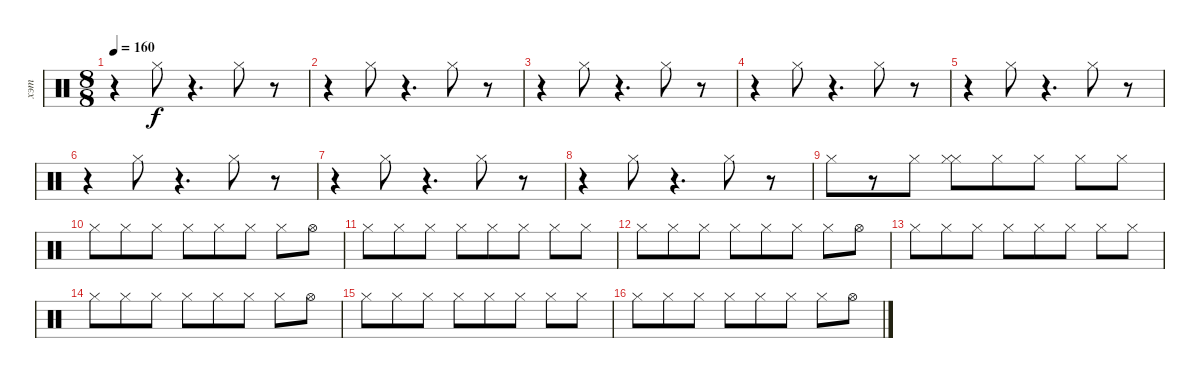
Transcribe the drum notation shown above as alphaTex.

\track ("хэт" "хэт") {instrument percussion}
\staff {score}
\articulation defaults
\ts (8 8)
\tempo 160
\clef neutral
\ks c
r.4{dy f} "Hi-Hat (closed)".8 r.4{d} "Hi-Hat (closed)".8 r.8 |
r.4 "Hi-Hat (closed)".8 r.4{d} "Hi-Hat (closed)".8 r.8 |
r.4 "Hi-Hat (closed)".8 r.4{d} "Hi-Hat (closed)".8 r.8 |
r.4 "Hi-Hat (closed)".8 r.4{d} "Hi-Hat (closed)".8 r.8 |
r.4 "Hi-Hat (closed)".8 r.4{d} "Hi-Hat (closed)".8 r.8 |
r.4 "Hi-Hat (closed)".8 r.4{d} "Hi-Hat (closed)".8 r.8 |
r.4 "Hi-Hat (closed)".8 r.4{d} "Hi-Hat (closed)".8 r.8 |
r.4 "Hi-Hat (closed)".8 r.4{d} "Hi-Hat (closed)".8 r.8 |
"Hi-Hat (closed)".8 r.8 "Hi-Hat (closed)".8 ("Hi-Hat (closed)" "Hi-Hat (closed)").8 "Hi-Hat (closed)".8 "Hi-Hat (closed)".8 "Hi-Hat (closed)".8 "Hi-Hat (closed)".8 |
"Hi-Hat (closed)".8 "Hi-Hat (closed)".8 "Hi-Hat (closed)".8 "Hi-Hat (closed)".8 "Hi-Hat (closed)".8 "Hi-Hat (closed)".8 "Hi-Hat (closed)".8 "Hi-Hat (open)".8 |
"Hi-Hat (closed)".8 "Hi-Hat (closed)".8 "Hi-Hat (closed)".8 "Hi-Hat (closed)".8 "Hi-Hat (closed)".8 "Hi-Hat (closed)".8 "Hi-Hat (closed)".8 "Hi-Hat (closed)".8 |
"Hi-Hat (closed)".8 "Hi-Hat (closed)".8 "Hi-Hat (closed)".8 "Hi-Hat (closed)".8 "Hi-Hat (closed)".8 "Hi-Hat (closed)".8 "Hi-Hat (closed)".8 "Hi-Hat (open)".8 |
"Hi-Hat (closed)".8 "Hi-Hat (closed)".8 "Hi-Hat (closed)".8 "Hi-Hat (closed)".8 "Hi-Hat (closed)".8 "Hi-Hat (closed)".8 "Hi-Hat (closed)".8 "Hi-Hat (closed)".8 |
"Hi-Hat (closed)".8 "Hi-Hat (closed)".8 "Hi-Hat (closed)".8 "Hi-Hat (closed)".8 "Hi-Hat (closed)".8 "Hi-Hat (closed)".8 "Hi-Hat (closed)".8 "Hi-Hat (open)".8 |
"Hi-Hat (closed)".8 "Hi-Hat (closed)".8 "Hi-Hat (closed)".8 "Hi-Hat (closed)".8 "Hi-Hat (closed)".8 "Hi-Hat (closed)".8 "Hi-Hat (closed)".8 "Hi-Hat (closed)".8 |
"Hi-Hat (closed)".8 "Hi-Hat (closed)".8 "Hi-Hat (closed)".8 "Hi-Hat (closed)".8 "Hi-Hat (closed)".8 "Hi-Hat (closed)".8 "Hi-Hat (closed)".8 "Hi-Hat (open)".8
